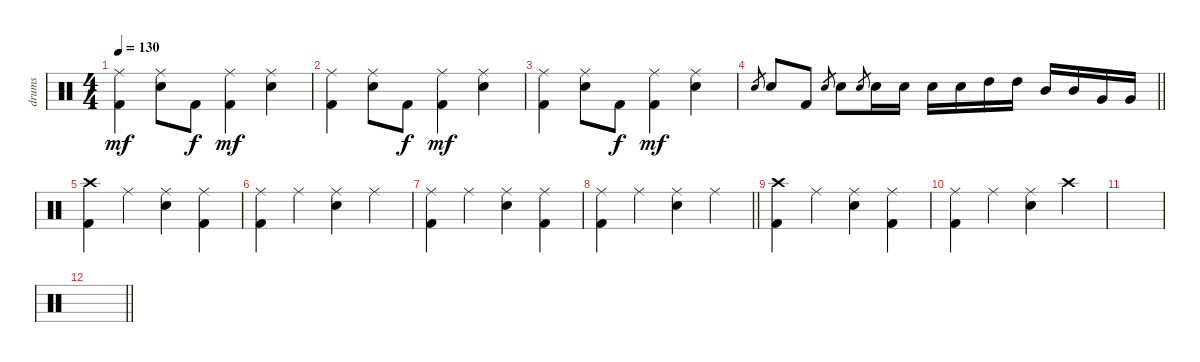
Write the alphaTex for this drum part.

\track ("drums" "drums") {instrument percussion}
\staff {score}
\articulation defaults
\ts (4 4)
\tempo 130
\clef neutral
\ks c
("Ride (middle)" "Kick (hit) 2").4{dy mf} ("Ride (middle)" "Snare (hit) 2").8 "Kick (hit) 2".8{dy f} ("Ride (middle)" "Kick (hit) 2").4{dy mf} ("Ride (middle)" "Snare (hit) 2").4 |
("Ride (middle)" "Kick (hit) 2").4 ("Ride (middle)" "Snare (hit) 2").8 "Kick (hit) 2".8{dy f} ("Ride (middle)" "Kick (hit) 2").4{dy mf} ("Ride (middle)" "Snare (hit) 2").4 |
("Ride (middle)" "Kick (hit) 2").4 ("Ride (middle)" "Snare (hit) 2").8 "Kick (hit) 2".8{dy f} ("Ride (middle)" "Kick (hit) 2").4{dy mf} ("Ride (middle)" "Snare (hit) 2").4 |
\barLineRight lightlight "Snare (hit) 2".8{gr} "Snare (hit) 2".8 "Kick (hit) 2".8 "Snare (hit) 2".8{gr} "Snare (hit) 2".8 "Snare (hit) 2".8{gr} "Snare (hit) 2".16 "Snare (hit) 2".16 "Snare (hit) 2".16 "Snare (hit) 2".16 "High Tom (hit)".16 "High Tom (hit)".16 "Mid Tom (hit)".16 "Mid Tom (hit)".16 "Very Low Tom (hit)".16 "Very Low Tom (hit)".16
|
("Crash high (hit)" "Kick (hit) 2").4 "Ride (middle)".4 ("Ride (middle)" "Snare (hit) 2").4 ("Ride (middle)" "Kick (hit) 2").4 |
("Ride (middle)" "Kick (hit) 2").4 "Ride (middle)".4 ("Ride (middle)" "Snare (hit) 2").4 "Ride (middle)".4 |
("Ride (middle)" "Kick (hit) 2").4 "Ride (middle)".4 ("Ride (middle)" "Snare (hit) 2").4 ("Ride (middle)" "Kick (hit) 2").4 |
\barLineRight lightlight
("Ride (middle)" "Kick (hit) 2").4 "Ride (middle)".4 ("Ride (middle)" "Snare (hit) 2").4 "Ride (middle)".4 |
("Crash high (hit)" "Kick (hit) 2").4 "Ride (middle)".4 ("Ride (middle)" "Snare (hit) 2").4 ("Ride (middle)" "Kick (hit) 2").4 |
("Ride (middle)" "Kick (hit) 2").4 "Ride (middle)".4 ("Ride (middle)" "Snare (hit) 2").4 "Crash high (hit)".4 |
|
\barLineRight lightlight
